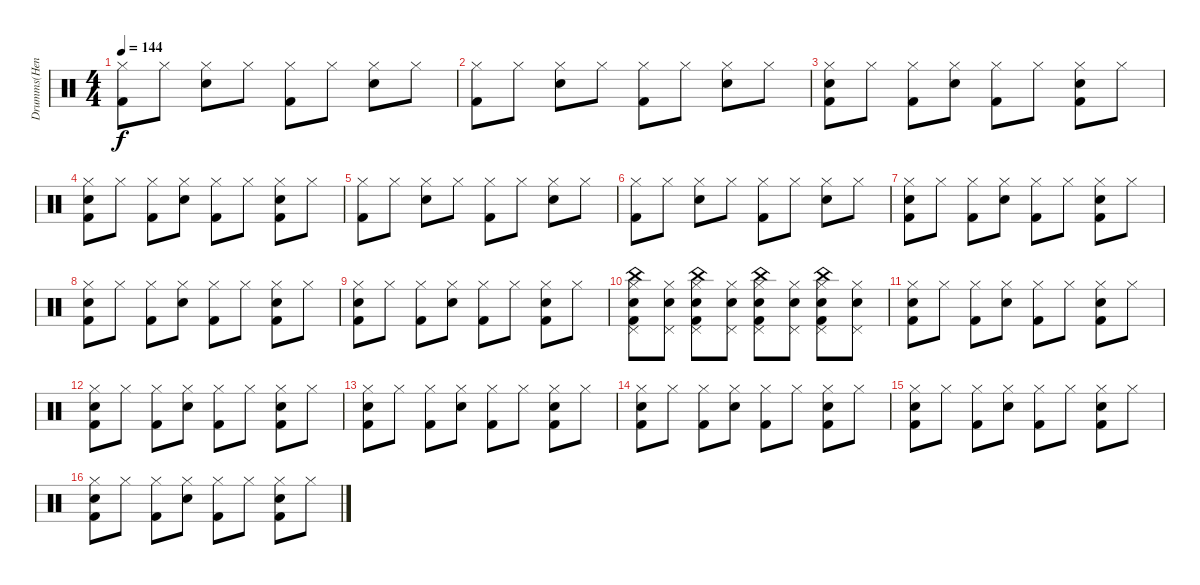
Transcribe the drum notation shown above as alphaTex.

\track ("Drumms(Henrik)" "Drumms(Hen") {instrument percussion}
\staff {score}
\articulation defaults
\ts (4 4)
\tempo 144
\clef neutral
\ks c
("Hi-Hat (closed)" "Kick (hit) 2").8{dy f} "Hi-Hat (closed)".8 ("Hi-Hat (closed)" "Electric Snare (hit)").8 "Hi-Hat (closed)".8 ("Hi-Hat (closed)" "Kick (hit) 2").8 "Hi-Hat (closed)".8 ("Hi-Hat (closed)" "Electric Snare (hit)").8 "Hi-Hat (closed)".8 |
("Hi-Hat (closed)" "Kick (hit) 2").8 "Hi-Hat (closed)".8 ("Hi-Hat (closed)" "Electric Snare (hit)").8 "Hi-Hat (closed)".8 ("Hi-Hat (closed)" "Kick (hit) 2").8 "Hi-Hat (closed)".8 ("Hi-Hat (closed)" "Electric Snare (hit)").8 "Hi-Hat (closed)".8 |
("Hi-Hat (closed)" "Kick (hit) 2" "Electric Snare (hit)").8 "Hi-Hat (closed)".8 ("Hi-Hat (closed)" "Kick (hit) 2").8 ("Hi-Hat (closed)" "Electric Snare (hit)").8 ("Hi-Hat (closed)" "Kick (hit) 2").8 "Hi-Hat (closed)".8 ("Hi-Hat (closed)" "Kick (hit) 2" "Electric Snare (hit)").8 "Hi-Hat (closed)".8 |
("Hi-Hat (closed)" "Kick (hit) 2" "Electric Snare (hit)").8 "Hi-Hat (closed)".8 ("Hi-Hat (closed)" "Kick (hit) 2").8 ("Hi-Hat (closed)" "Electric Snare (hit)").8 ("Hi-Hat (closed)" "Kick (hit) 2").8 "Hi-Hat (closed)".8 ("Hi-Hat (closed)" "Kick (hit) 2" "Electric Snare (hit)").8 "Hi-Hat (closed)".8 |
("Hi-Hat (closed)" "Kick (hit) 2").8 "Hi-Hat (closed)".8 ("Hi-Hat (closed)" "Electric Snare (hit)").8 "Hi-Hat (closed)".8 ("Hi-Hat (closed)" "Kick (hit) 2").8 "Hi-Hat (closed)".8 ("Hi-Hat (closed)" "Electric Snare (hit)").8 "Hi-Hat (closed)".8 |
("Hi-Hat (closed)" "Kick (hit) 2").8 "Hi-Hat (closed)".8 ("Hi-Hat (closed)" "Electric Snare (hit)").8 "Hi-Hat (closed)".8 ("Hi-Hat (closed)" "Kick (hit) 2").8 "Hi-Hat (closed)".8 ("Hi-Hat (closed)" "Electric Snare (hit)").8 "Hi-Hat (closed)".8 |
("Hi-Hat (closed)" "Kick (hit) 2" "Electric Snare (hit)").8 "Hi-Hat (closed)".8 ("Hi-Hat (closed)" "Kick (hit) 2").8 ("Hi-Hat (closed)" "Electric Snare (hit)").8 ("Hi-Hat (closed)" "Kick (hit) 2").8 "Hi-Hat (closed)".8 ("Hi-Hat (closed)" "Kick (hit) 2" "Electric Snare (hit)").8 "Hi-Hat (closed)".8 |
("Hi-Hat (closed)" "Kick (hit) 2" "Electric Snare (hit)").8 "Hi-Hat (closed)".8 ("Hi-Hat (closed)" "Kick (hit) 2").8 ("Hi-Hat (closed)" "Electric Snare (hit)").8 ("Hi-Hat (closed)" "Kick (hit) 2").8 "Hi-Hat (closed)".8 ("Hi-Hat (closed)" "Kick (hit) 2" "Electric Snare (hit)").8 "Hi-Hat (closed)".8 |
("Hi-Hat (closed)" "Kick (hit) 2" "Electric Snare (hit)").8 "Hi-Hat (closed)".8 ("Hi-Hat (closed)" "Kick (hit) 2").8 ("Hi-Hat (closed)" "Electric Snare (hit)").8 ("Hi-Hat (closed)" "Kick (hit) 2").8 "Hi-Hat (closed)".8 ("Hi-Hat (closed)" "Kick (hit) 2" "Electric Snare (hit)").8 "Hi-Hat (closed)".8 |
("Hi-Hat (closed)" "Pedal Hi-Hat (hit)" "Electric Snare (hit)" "China (hit)" "Kick (hit) 2").8 ("Hi-Hat (closed)" "Pedal Hi-Hat (hit)" "Electric Snare (hit)").8 ("Hi-Hat (closed)" "Pedal Hi-Hat (hit)" "Electric Snare (hit)" "China (hit)" "Kick (hit) 2").8 ("Hi-Hat (closed)" "Pedal Hi-Hat (hit)" "Electric Snare (hit)").8 ("Hi-Hat (closed)" "Pedal Hi-Hat (hit)" "Electric Snare (hit)" "China (hit)" "Kick (hit) 2").8 ("Hi-Hat (closed)" "Pedal Hi-Hat (hit)" "Electric Snare (hit)").8 ("Hi-Hat (closed)" "Pedal Hi-Hat (hit)" "Electric Snare (hit)" "China (hit)" "Kick (hit) 2").8 ("Hi-Hat (closed)" "Pedal Hi-Hat (hit)" "Electric Snare (hit)").8 |
("Hi-Hat (closed)" "Kick (hit) 2" "Electric Snare (hit)").8 "Hi-Hat (closed)".8 ("Hi-Hat (closed)" "Kick (hit) 2").8 ("Hi-Hat (closed)" "Electric Snare (hit)").8 ("Hi-Hat (closed)" "Kick (hit) 2").8 "Hi-Hat (closed)".8 ("Hi-Hat (closed)" "Kick (hit) 2" "Electric Snare (hit)").8 "Hi-Hat (closed)".8 |
("Hi-Hat (closed)" "Kick (hit) 2" "Electric Snare (hit)").8 "Hi-Hat (closed)".8 ("Hi-Hat (closed)" "Kick (hit) 2").8 ("Hi-Hat (closed)" "Electric Snare (hit)").8 ("Hi-Hat (closed)" "Kick (hit) 2").8 "Hi-Hat (closed)".8 ("Hi-Hat (closed)" "Kick (hit) 2" "Electric Snare (hit)").8 "Hi-Hat (closed)".8 |
("Hi-Hat (closed)" "Kick (hit) 2" "Electric Snare (hit)").8 "Hi-Hat (closed)".8 ("Hi-Hat (closed)" "Kick (hit) 2").8 ("Hi-Hat (closed)" "Electric Snare (hit)").8 ("Hi-Hat (closed)" "Kick (hit) 2").8 "Hi-Hat (closed)".8 ("Hi-Hat (closed)" "Kick (hit) 2" "Electric Snare (hit)").8 "Hi-Hat (closed)".8 |
("Hi-Hat (closed)" "Kick (hit) 2" "Electric Snare (hit)").8 "Hi-Hat (closed)".8 ("Hi-Hat (closed)" "Kick (hit) 2").8 ("Hi-Hat (closed)" "Electric Snare (hit)").8 ("Hi-Hat (closed)" "Kick (hit) 2").8 "Hi-Hat (closed)".8 ("Hi-Hat (closed)" "Kick (hit) 2" "Electric Snare (hit)").8 "Hi-Hat (closed)".8 |
("Hi-Hat (closed)" "Kick (hit) 2" "Electric Snare (hit)").8 "Hi-Hat (closed)".8 ("Hi-Hat (closed)" "Kick (hit) 2").8 ("Hi-Hat (closed)" "Electric Snare (hit)").8 ("Hi-Hat (closed)" "Kick (hit) 2").8 "Hi-Hat (closed)".8 ("Hi-Hat (closed)" "Kick (hit) 2" "Electric Snare (hit)").8 "Hi-Hat (closed)".8 |
("Hi-Hat (closed)" "Kick (hit) 2" "Electric Snare (hit)").8 "Hi-Hat (closed)".8 ("Hi-Hat (closed)" "Kick (hit) 2").8 ("Hi-Hat (closed)" "Electric Snare (hit)").8 ("Hi-Hat (closed)" "Kick (hit) 2").8 "Hi-Hat (closed)".8 ("Hi-Hat (closed)" "Kick (hit) 2" "Electric Snare (hit)").8 "Hi-Hat (closed)".8
